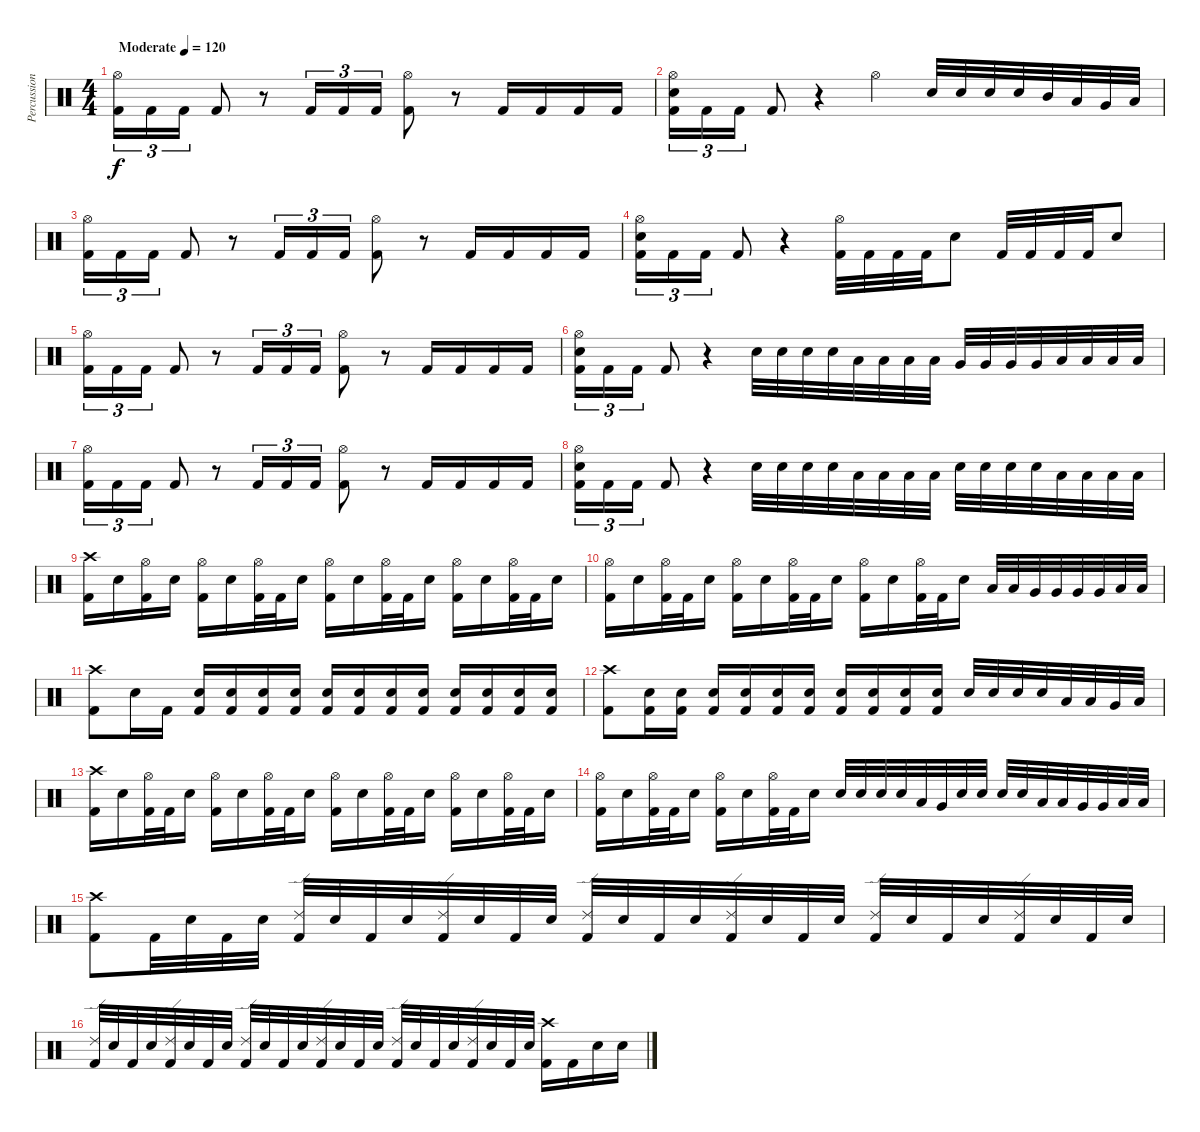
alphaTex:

\track ("Percussion" "Percussion") {instrument percussion}
\staff {score}
\articulation defaults
\ts (4 4)
\tempo (120 "Moderate")
\clef neutral
\ks c
("Hi-Hat (open)" "Kick (hit) 2").16{tu (3 2) dy f} "Kick (hit) 2".16{tu (3 2)} "Kick (hit) 2".16{tu (3 2)} "Kick (hit) 2".8 r.8 "Kick (hit) 2".16{tu (3 2)} "Kick (hit) 2".16{tu (3 2)} "Kick (hit) 2".16{tu (3 2)} ("Hi-Hat (open)" "Kick (hit) 2").8 r.8 "Kick (hit) 2".16 "Kick (hit) 2".16 "Kick (hit) 2".16 "Kick (hit) 2".16 |
("Hi-Hat (open)" "Electric Snare (hit)" "Kick (hit) 2").16{tu (3 2)} "Kick (hit) 2".16{tu (3 2)} "Kick (hit) 2".16{tu (3 2)} "Kick (hit) 2".8 r.4 "Hi-Hat (open)".4 "Electric Snare (hit)".32 "Electric Snare (hit)".32 "Electric Snare (hit)".32 "Electric Snare (hit)".32 "Mid Tom (hit)".32 "Low Tom (hit)".32 "Very Low Tom (hit)".32 "Low Floor Tom (hit)".32 |
("Hi-Hat (open)" "Kick (hit) 2").16{tu (3 2)} "Kick (hit) 2".16{tu (3 2)} "Kick (hit) 2".16{tu (3 2)} "Kick (hit) 2".8 r.8 "Kick (hit) 2".16{tu (3 2)} "Kick (hit) 2".16{tu (3 2)} "Kick (hit) 2".16{tu (3 2)} ("Hi-Hat (open)" "Kick (hit) 2").8 r.8 "Kick (hit) 2".16 "Kick (hit) 2".16 "Kick (hit) 2".16 "Kick (hit) 2".16 |
("Hi-Hat (open)" "Electric Snare (hit)" "Kick (hit) 2").16{tu (3 2)} "Kick (hit) 2".16{tu (3 2)} "Kick (hit) 2".16{tu (3 2)} "Kick (hit) 2".8 r.4 ("Hi-Hat (open)" "Kick (hit) 2").32 "Kick (hit) 2".32 "Kick (hit) 2".32 "Kick (hit) 2".32 "Electric Snare (hit)".8 "Kick (hit) 2".32 "Kick (hit) 2".32 "Kick (hit) 2".32 "Kick (hit) 2".32 "Electric Snare (hit)".8 |
("Hi-Hat (open)" "Kick (hit) 2").16{tu (3 2)} "Kick (hit) 2".16{tu (3 2)} "Kick (hit) 2".16{tu (3 2)} "Kick (hit) 2".8 r.8 "Kick (hit) 2".16{tu (3 2)} "Kick (hit) 2".16{tu (3 2)} "Kick (hit) 2".16{tu (3 2)} ("Hi-Hat (open)" "Kick (hit) 2").8 r.8 "Kick (hit) 2".16 "Kick (hit) 2".16 "Kick (hit) 2".16 "Kick (hit) 2".16 |
("Hi-Hat (open)" "Electric Snare (hit)" "Kick (hit) 2").16{tu (3 2)} "Kick (hit) 2".16{tu (3 2)} "Kick (hit) 2".16{tu (3 2)} "Kick (hit) 2".8 r.4 "Electric Snare (hit)".32 "Electric Snare (hit)".32 "Electric Snare (hit)".32 "Electric Snare (hit)".32 "Low Tom (hit)".32 "Low Tom (hit)".32 "Low Tom (hit)".32 "Low Tom (hit)".32 "Very Low Tom (hit)".32 "Very Low Tom (hit)".32 "Very Low Tom (hit)".32 "Very Low Tom (hit)".32 "Low Floor Tom (hit)".32 "Low Floor Tom (hit)".32 "Low Floor Tom (hit)".32 "Low Floor Tom (hit)".32 |
("Hi-Hat (open)" "Kick (hit) 2").16{tu (3 2)} "Kick (hit) 2".16{tu (3 2)} "Kick (hit) 2".16{tu (3 2)} "Kick (hit) 2".8 r.8 "Kick (hit) 2".16{tu (3 2)} "Kick (hit) 2".16{tu (3 2)} "Kick (hit) 2".16{tu (3 2)} ("Hi-Hat (open)" "Kick (hit) 2").8 r.8 "Kick (hit) 2".16 "Kick (hit) 2".16 "Kick (hit) 2".16 "Kick (hit) 2".16 |
("Hi-Hat (open)" "Electric Snare (hit)" "Kick (hit) 2").16{tu (3 2)} "Kick (hit) 2".16{tu (3 2)} "Kick (hit) 2".16{tu (3 2)} "Kick (hit) 2".8 r.4 "Electric Snare (hit)".32 "Electric Snare (hit)".32 "Electric Snare (hit)".32 "Electric Snare (hit)".32 "Low Tom (hit)".32 "Low Tom (hit)".32 "Low Tom (hit)".32 "Low Tom (hit)".32 "Electric Snare (hit)".32 "Electric Snare (hit)".32 "Electric Snare (hit)".32 "Electric Snare (hit)".32 "Low Floor Tom (hit)".32 "Low Floor Tom (hit)".32 "Low Floor Tom (hit)".32 "Low Floor Tom (hit)".32 |
("Crash high (hit)" "Kick (hit) 2").16{volume 10} "Electric Snare (hit)".16 ("Hi-Hat (open)" "Kick (hit) 2").16 "Electric Snare (hit)".16 ("Hi-Hat (open)" "Kick (hit) 2").16 "Electric Snare (hit)".16 ("Hi-Hat (open)" "Kick (hit) 2").32 "Kick (hit) 2".32 "Electric Snare (hit)".16 ("Hi-Hat (open)" "Kick (hit) 2").16 "Electric Snare (hit)".16 ("Hi-Hat (open)" "Kick (hit) 2").32 "Kick (hit) 2".32 "Electric Snare (hit)".16 ("Hi-Hat (open)" "Kick (hit) 2").16 "Electric Snare (hit)".16 ("Hi-Hat (open)" "Kick (hit) 2").32 "Kick (hit) 2".32 "Electric Snare (hit)".16 |
("Hi-Hat (open)" "Kick (hit) 2").16 "Electric Snare (hit)".16 ("Hi-Hat (open)" "Kick (hit) 2").32 "Kick (hit) 2".32 "Electric Snare (hit)".16 ("Hi-Hat (open)" "Kick (hit) 2").16 "Electric Snare (hit)".16 ("Hi-Hat (open)" "Kick (hit) 2").32 "Kick (hit) 2".32 "Electric Snare (hit)".16 ("Hi-Hat (open)" "Kick (hit) 2").16 "Electric Snare (hit)".16 ("Hi-Hat (open)" "Kick (hit) 2").32 "Kick (hit) 2".32 "Electric Snare (hit)".16 "Low Tom (hit)".32 "Low Tom (hit)".32 "Very Low Tom (hit)".32 "Very Low Tom (hit)".32 "Very Low Tom (hit)".32 "Very Low Tom (hit)".32 "Low Floor Tom (hit)".32 "Low Floor Tom (hit)".32 |
("Crash high (hit)" "Kick (hit) 2").8 "Electric Snare (hit)".16 "Kick (hit) 2".16 ("Electric Snare (hit)" "Kick (hit) 2").16 ("Electric Snare (hit)" "Kick (hit) 2").16 ("Electric Snare (hit)" "Kick (hit) 2").16 ("Electric Snare (hit)" "Kick (hit) 2").16 ("Electric Snare (hit)" "Kick (hit) 2").16 ("Electric Snare (hit)" "Kick (hit) 2").16 ("Electric Snare (hit)" "Kick (hit) 2").16 ("Electric Snare (hit)" "Kick (hit) 2").16 ("Electric Snare (hit)" "Kick (hit) 2").16 ("Electric Snare (hit)" "Kick (hit) 2").16 ("Electric Snare (hit)" "Kick (hit) 2").16 ("Electric Snare (hit)" "Kick (hit) 2").16 |
("Crash high (hit)" "Kick (hit) 2").8 ("Electric Snare (hit)" "Kick (hit) 2").16 ("Electric Snare (hit)" "Kick (hit) 2").16 ("Electric Snare (hit)" "Kick (hit) 2").16 ("Electric Snare (hit)" "Kick (hit) 2").16 ("Electric Snare (hit)" "Kick (hit) 2").16 ("Electric Snare (hit)" "Kick (hit) 2").16 ("Electric Snare (hit)" "Kick (hit) 2").16 ("Electric Snare (hit)" "Kick (hit) 2").16 ("Electric Snare (hit)" "Kick (hit) 2").16 ("Electric Snare (hit)" "Kick (hit) 2").16 "Electric Snare (hit)".32 "Electric Snare (hit)".32 "Electric Snare (hit)".32 "Electric Snare (hit)".32 "Low Tom (hit)".32 "Low Tom (hit)".32 "Very Low Tom (hit)".32 "Low Floor Tom (hit)".32 |
("Crash high (hit)" "Kick (hit) 2").16 "Electric Snare (hit)".16 ("Hi-Hat (open)" "Kick (hit) 2").32 "Kick (hit) 2".32 "Electric Snare (hit)".16 ("Hi-Hat (open)" "Kick (hit) 2").16 "Electric Snare (hit)".16 ("Hi-Hat (open)" "Kick (hit) 2").32 "Kick (hit) 2".32 "Electric Snare (hit)".16 ("Hi-Hat (open)" "Kick (hit) 2").16 "Electric Snare (hit)".16 ("Hi-Hat (open)" "Kick (hit) 2").32 "Kick (hit) 2".32 "Electric Snare (hit)".16 ("Hi-Hat (open)" "Kick (hit) 2").16 "Electric Snare (hit)".16 ("Hi-Hat (open)" "Kick (hit) 2").32 "Kick (hit) 2".32 "Electric Snare (hit)".16 |
("Hi-Hat (open)" "Kick (hit) 2").16 "Electric Snare (hit)".16 ("Hi-Hat (open)" "Kick (hit) 2").32 "Kick (hit) 2".32 "Electric Snare (hit)".16 ("Hi-Hat (open)" "Kick (hit) 2").16 "Electric Snare (hit)".16 ("Hi-Hat (open)" "Kick (hit) 2").32 "Kick (hit) 2".32 "Electric Snare (hit)".16 "Electric Snare (hit)".32 "Electric Snare (hit)".32 "Electric Snare (hit)".32 "Electric Snare (hit)".32 "Low Tom (hit)".32 "Very Low Tom (hit)".32 "Electric Snare (hit)".32 "Electric Snare (hit)".32 "Electric Snare (hit)".32 "Electric Snare (hit)".32 "Low Tom (hit)".32 "Low Tom (hit)".32 "Very Low Tom (hit)".32 "Very Low Tom (hit)".32 "Low Floor Tom (hit)".32 "Low Floor Tom (hit)".32 |
("Crash high (hit)" "Kick (hit) 2").8 "Kick (hit) 2".32 "Electric Snare (hit)".32 "Kick (hit) 2".32 "Electric Snare (hit)".32 ("Ride (edge) 2" "Kick (hit) 2").32 "Electric Snare (hit)".32 "Kick (hit) 2".32 "Electric Snare (hit)".32 ("Ride (edge) 2" "Kick (hit) 2").32 "Electric Snare (hit)".32 "Kick (hit) 2".32 "Electric Snare (hit)".32 ("Ride (edge) 2" "Kick (hit) 2").32 "Electric Snare (hit)".32 "Kick (hit) 2".32 "Electric Snare (hit)".32 ("Ride (edge) 2" "Kick (hit) 2").32 "Electric Snare (hit)".32 "Kick (hit) 2".32 "Electric Snare (hit)".32 ("Ride (edge) 2" "Kick (hit) 2").32 "Electric Snare (hit)".32 "Kick (hit) 2".32 "Electric Snare (hit)".32 ("Ride (edge) 2" "Kick (hit) 2").32 "Electric Snare (hit)".32 "Kick (hit) 2".32 "Electric Snare (hit)".32 |
("Ride (edge) 2" "Kick (hit) 2").32 "Electric Snare (hit)".32 "Kick (hit) 2".32 "Electric Snare (hit)".32 ("Ride (edge) 2" "Kick (hit) 2").32 "Electric Snare (hit)".32 "Kick (hit) 2".32 "Electric Snare (hit)".32 ("Ride (edge) 2" "Kick (hit) 2").32 "Electric Snare (hit)".32 "Kick (hit) 2".32 "Electric Snare (hit)".32 ("Ride (edge) 2" "Kick (hit) 2").32 "Electric Snare (hit)".32 "Kick (hit) 2".32 "Electric Snare (hit)".32 ("Ride (edge) 2" "Kick (hit) 2").32 "Electric Snare (hit)".32 "Kick (hit) 2".32 "Electric Snare (hit)".32 ("Ride (edge) 2" "Kick (hit) 2").32 "Electric Snare (hit)".32 "Kick (hit) 2".32 "Electric Snare (hit)".32 ("Crash high (hit)" "Kick (hit) 2").16 "Kick (hit) 2".16 "Electric Snare (hit)".16 "Electric Snare (hit)".16
